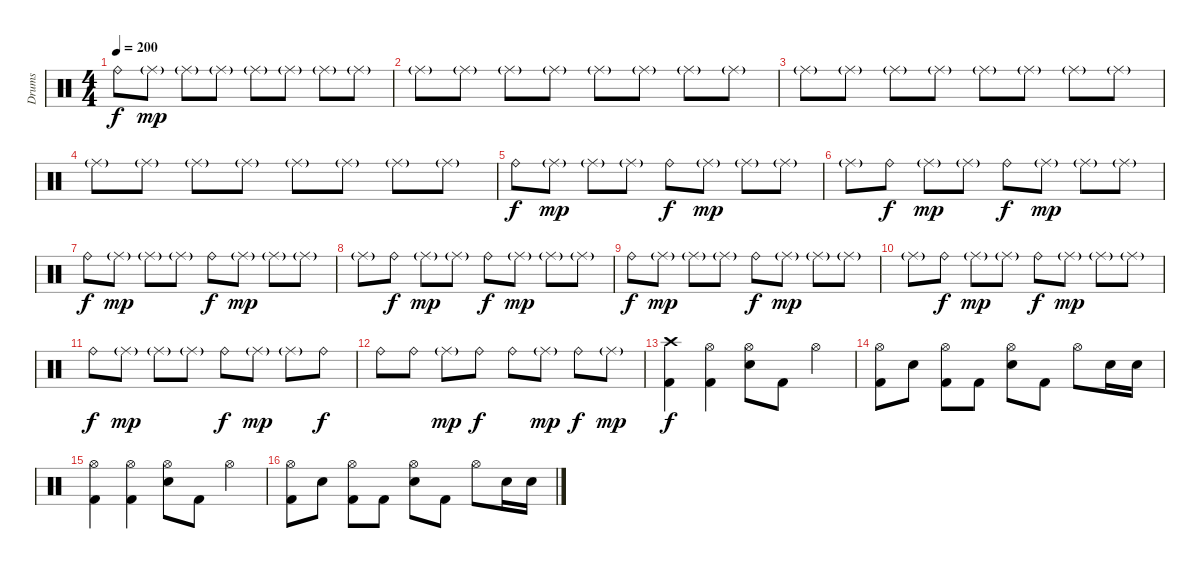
\track ("Drums" "Drums") {instrument percussion}
\staff {score}
\articulation defaults
\ts (4 4)
\tempo 200
\clef neutral
\ks c "Ride (bell)".8{dy f} "Ride (middle)"{g}.8{dy mp} "Ride (middle)"{g}.8 "Ride (middle)"{g}.8 "Ride (middle)"{g}.8 "Ride (middle)"{g}.8 "Ride (middle)"{g}.8 "Ride (middle)"{g}.8
|
"Ride (middle)"{g}.8 "Ride (middle)"{g}.8 "Ride (middle)"{g}.8 "Ride (middle)"{g}.8 "Ride (middle)"{g}.8 "Ride (middle)"{g}.8 "Ride (middle)"{g}.8 "Ride (middle)"{g}.8 |
"Ride (middle)"{g}.8 "Ride (middle)"{g}.8 "Ride (middle)"{g}.8 "Ride (middle)"{g}.8 "Ride (middle)"{g}.8 "Ride (middle)"{g}.8 "Ride (middle)"{g}.8 "Ride (middle)"{g}.8 |
"Ride (middle)"{g}.8 "Ride (middle)"{g}.8 "Ride (middle)"{g}.8 "Ride (middle)"{g}.8 "Ride (middle)"{g}.8 "Ride (middle)"{g}.8 "Ride (middle)"{g}.8 "Ride (middle)"{g}.8 |
"Ride (bell)".8{dy f} "Ride (middle)"{g}.8{dy mp} "Ride (middle)"{g}.8 "Ride (middle)"{g}.8 "Ride (bell)".8{dy f} "Ride (middle)"{g}.8{dy mp} "Ride (middle)"{g}.8 "Ride (middle)"{g}.8 |
"Ride (middle)"{g}.8 "Ride (bell)".8{dy f} "Ride (middle)"{g}.8{dy mp} "Ride (middle)"{g}.8 "Ride (bell)".8{dy f} "Ride (middle)"{g}.8{dy mp} "Ride (middle)"{g}.8 "Ride (middle)"{g}.8 |
"Ride (bell)".8{dy f} "Ride (middle)"{g}.8{dy mp} "Ride (middle)"{g}.8 "Ride (middle)"{g}.8 "Ride (bell)".8{dy f} "Ride (middle)"{g}.8{dy mp} "Ride (middle)"{g}.8 "Ride (middle)"{g}.8 |
"Ride (middle)"{g}.8 "Ride (bell)".8{dy f} "Ride (middle)"{g}.8{dy mp} "Ride (middle)"{g}.8 "Ride (bell)".8{dy f} "Ride (middle)"{g}.8{dy mp} "Ride (middle)"{g}.8 "Ride (middle)"{g}.8 |
"Ride (bell)".8{dy f} "Ride (middle)"{g}.8{dy mp} "Ride (middle)"{g}.8 "Ride (middle)"{g}.8 "Ride (bell)".8{dy f} "Ride (middle)"{g}.8{dy mp} "Ride (middle)"{g}.8 "Ride (middle)"{g}.8 |
"Ride (middle)"{g}.8 "Ride (bell)".8{dy f} "Ride (middle)"{g}.8{dy mp} "Ride (middle)"{g}.8 "Ride (bell)".8{dy f} "Ride (middle)"{g}.8{dy mp} "Ride (middle)"{g}.8 "Ride (middle)"{g}.8 |
"Ride (bell)".8{dy f} "Ride (middle)"{g}.8{dy mp} "Ride (middle)"{g}.8 "Ride (middle)"{g}.8 "Ride (bell)".8{dy f} "Ride (middle)"{g}.8{dy mp} "Ride (middle)"{g}.8 "Ride (bell)".8{dy f} |
"Ride (bell)".8 "Ride (bell)".8 "Ride (middle)"{g}.8{dy mp} "Ride (bell)".8{dy f} "Ride (bell)".8 "Ride (middle)"{g}.8{dy mp} "Ride (bell)".8{dy f} "Ride (middle)"{g}.8{dy mp} |
("Crash high (hit)" "Kick (hit) 2").4{dy f} ("Hi-Hat (open)" "Kick (hit) 2").4 ("Hi-Hat (open)" "Electric Snare (hit)").8 "Kick (hit) 2".8 "Hi-Hat (open)".4 |
("Hi-Hat (open)" "Kick (hit) 2").8 "Electric Snare (hit)".8 ("Hi-Hat (open)" "Kick (hit) 2").8 "Kick (hit) 2".8 ("Hi-Hat (open)" "Electric Snare (hit)").8 "Kick (hit) 2".8 "Hi-Hat (open)".8 "Electric Snare (hit)".16 "Electric Snare (hit)".16 |
("Hi-Hat (open)" "Kick (hit) 2").4 ("Hi-Hat (open)" "Kick (hit) 2").4 ("Hi-Hat (open)" "Electric Snare (hit)").8 "Kick (hit) 2".8 "Hi-Hat (open)".4 |
("Hi-Hat (open)" "Kick (hit) 2").8 "Electric Snare (hit)".8 ("Hi-Hat (open)" "Kick (hit) 2").8 "Kick (hit) 2".8 ("Hi-Hat (open)" "Electric Snare (hit)").8 "Kick (hit) 2".8 "Hi-Hat (open)".8 "Electric Snare (hit)".16 "Electric Snare (hit)".16
